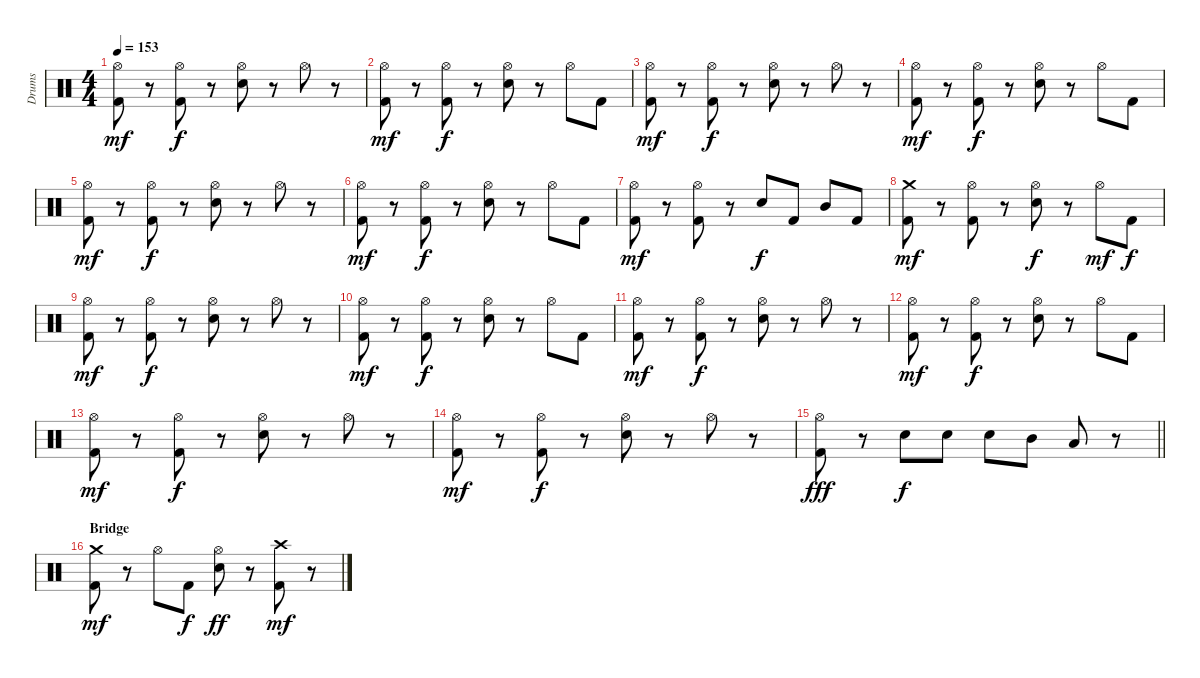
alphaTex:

\track ("Drums" "Drums") {instrument percussion}
\staff {score}
\articulation defaults
\ts (4 4)
\tempo 153
\clef neutral
\ks c
("Hi-Hat (open)" "Kick (hit) 2").8{dy mf} r.8 ("Hi-Hat (open)" "Kick (hit) 2").8{dy f} r.8 ("Hi-Hat (open)" "Electric Snare (hit)").8 r.8 "Hi-Hat (open)".8 r.8 |
("Hi-Hat (open)" "Kick (hit) 2").8{dy mf} r.8 ("Hi-Hat (open)" "Kick (hit) 2").8{dy f} r.8 ("Hi-Hat (open)" "Electric Snare (hit)").8 r.8 "Hi-Hat (open)".8 "Kick (hit) 2".8 |
("Hi-Hat (open)" "Kick (hit) 2").8{dy mf} r.8 ("Hi-Hat (open)" "Kick (hit) 2").8{dy f} r.8 ("Hi-Hat (open)" "Electric Snare (hit)").8 r.8 "Hi-Hat (open)".8 r.8 |
("Hi-Hat (open)" "Kick (hit) 2").8{dy mf} r.8 ("Hi-Hat (open)" "Kick (hit) 2").8{dy f} r.8 ("Hi-Hat (open)" "Electric Snare (hit)").8 r.8 "Hi-Hat (open)".8 "Kick (hit) 2".8 |
("Hi-Hat (open)" "Kick (hit) 2").8{dy mf} r.8 ("Hi-Hat (open)" "Kick (hit) 2").8{dy f} r.8 ("Hi-Hat (open)" "Electric Snare (hit)").8 r.8 "Hi-Hat (open)".8 r.8 |
("Hi-Hat (open)" "Kick (hit) 2").8{dy mf} r.8 ("Hi-Hat (open)" "Kick (hit) 2").8{dy f} r.8 ("Hi-Hat (open)" "Electric Snare (hit)").8 r.8 "Hi-Hat (open)".8 "Kick (hit) 2".8 |
("Hi-Hat (open)" "Kick (hit) 2").8{dy mf} r.8 ("Hi-Hat (open)" "Kick (hit) 2").8 r.8 "Electric Snare (hit)".8{dy f} "Kick (hit) 2".8 "Mid Tom (hit)".8 "Kick (hit) 2".8 |
("Crash medium (hit)" "Kick (hit) 2").8{dy mf} r.8 ("Hi-Hat (open)" "Kick (hit) 2").8 r.8 ("Hi-Hat (open)" "Electric Snare (hit)").8{dy f} r.8 "Hi-Hat (open)".8{dy mf} "Kick (hit) 2".8{dy f} |
("Hi-Hat (open)" "Kick (hit) 2").8{dy mf} r.8 ("Hi-Hat (open)" "Kick (hit) 2").8{dy f} r.8 ("Hi-Hat (open)" "Electric Snare (hit)").8 r.8 "Hi-Hat (open)".8 r.8 |
("Hi-Hat (open)" "Kick (hit) 2").8{dy mf} r.8 ("Hi-Hat (open)" "Kick (hit) 2").8{dy f} r.8 ("Hi-Hat (open)" "Electric Snare (hit)").8 r.8 "Hi-Hat (open)".8 "Kick (hit) 2".8 |
("Hi-Hat (open)" "Kick (hit) 2").8{dy mf} r.8 ("Hi-Hat (open)" "Kick (hit) 2").8{dy f} r.8 ("Hi-Hat (open)" "Electric Snare (hit)").8 r.8 "Hi-Hat (open)".8 r.8 |
("Hi-Hat (open)" "Kick (hit) 2").8{dy mf} r.8 ("Hi-Hat (open)" "Kick (hit) 2").8{dy f} r.8 ("Hi-Hat (open)" "Electric Snare (hit)").8 r.8 "Hi-Hat (open)".8 "Kick (hit) 2".8 |
("Hi-Hat (open)" "Kick (hit) 2").8{dy mf} r.8 ("Hi-Hat (open)" "Kick (hit) 2").8{dy f} r.8 ("Hi-Hat (open)" "Electric Snare (hit)").8 r.8 "Hi-Hat (open)".8 r.8 |
("Hi-Hat (open)" "Kick (hit) 2").8{dy mf} r.8 ("Hi-Hat (open)" "Kick (hit) 2").8{dy f} r.8 ("Hi-Hat (open)" "Electric Snare (hit)").8 r.8 "Hi-Hat (open)".8 r.8 |
\barLineRight lightlight
("Hi-Hat (open)" "Kick (hit) 2").8{dy fff} r.8 "Electric Snare (hit)".8{dy f} "Electric Snare (hit)".8 "Electric Snare (hit)".8 "Mid Tom (hit)".8 "Low Tom (hit)".8 r.8 |
\section ("" "Bridge")
("Crash medium (hit)" "Kick (hit) 2").8{dy mf} r.8 "Hi-Hat (open)".8 "Kick (hit) 2".8{dy f} ("Hi-Hat (open)" "Electric Snare (hit)").8{dy ff} r.8 ("Crash high (hit)" "Kick (hit) 2").8{dy mf} r.8
